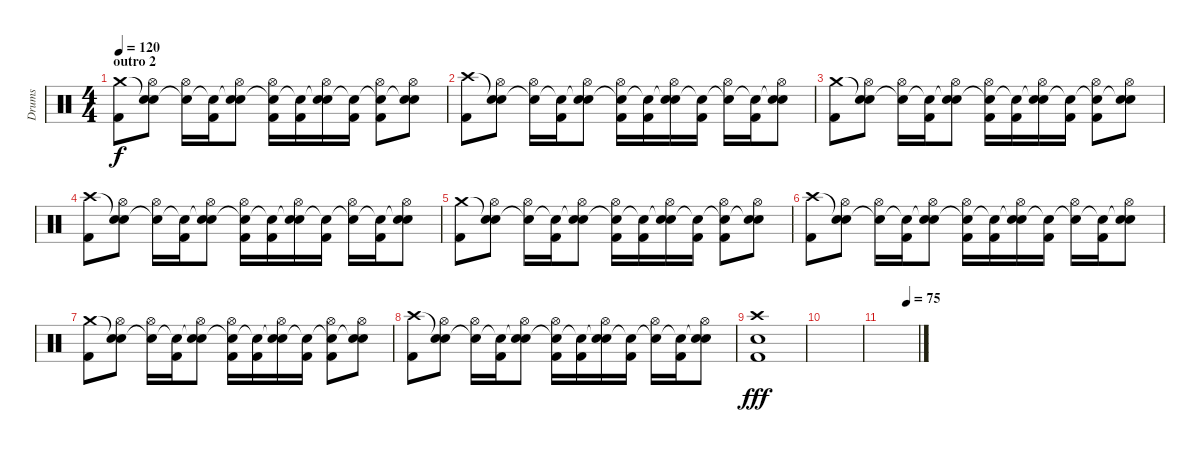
\track ("Drums" "Drums") {instrument percussion}
\staff {score}
\articulation defaults
\ts (4 4)
\section ("" "outro 2")
\tempo 120
\clef neutral
\ks c
("Crash medium (hit)" "Kick (hit) 2").8{dy f} ("Snare (hit)"{t} "Hi-Hat (open)" "Electric Snare (hit)").8 ("Snare (hit)"{t} "Hi-Hat (open)").16 ("Snare (hit)"{t} "Kick (hit) 2").16 ("Snare (hit)"{t} "Hi-Hat (open)" "Electric Snare (hit)").8 ("Snare (hit)"{t} "Hi-Hat (open)" "Kick (hit) 2").16 ("Snare (hit)"{t} "Kick (hit) 2").16 ("Snare (hit)"{t} "Hi-Hat (open)" "Electric Snare (hit)").16 ("Snare (hit)"{t} "Kick (hit) 2").16 ("Snare (hit)"{t} "Hi-Hat (open)" "Kick (hit) 2").8 ("Snare (hit)"{t} "Hi-Hat (open)" "Electric Snare (hit)").8 |
("Crash high (hit)" "Kick (hit) 2").8 ("Snare (hit)"{t} "Hi-Hat (open)" "Electric Snare (hit)").8 ("Snare (hit)"{t} "Hi-Hat (open)").16 ("Snare (hit)"{t} "Kick (hit) 2").16 ("Snare (hit)"{t} "Hi-Hat (open)" "Electric Snare (hit)").8 ("Snare (hit)"{t} "Hi-Hat (open)" "Kick (hit) 2").16 ("Snare (hit)"{t} "Kick (hit) 2").16 ("Snare (hit)"{t} "Hi-Hat (open)" "Electric Snare (hit)").16 ("Snare (hit)"{t} "Kick (hit) 2").16 ("Snare (hit)"{t} "Hi-Hat (open)").16 ("Snare (hit)"{t} "Kick (hit) 2").16 ("Snare (hit)"{t} "Hi-Hat (open)" "Electric Snare (hit)").8 |
("Crash medium (hit)" "Kick (hit) 2").8 ("Snare (hit)"{t} "Hi-Hat (open)" "Electric Snare (hit)").8 ("Snare (hit)"{t} "Hi-Hat (open)").16 ("Snare (hit)"{t} "Kick (hit) 2").16 ("Snare (hit)"{t} "Hi-Hat (open)" "Electric Snare (hit)").8 ("Snare (hit)"{t} "Hi-Hat (open)" "Kick (hit) 2").16 ("Snare (hit)"{t} "Kick (hit) 2").16 ("Snare (hit)"{t} "Hi-Hat (open)" "Electric Snare (hit)").16 ("Snare (hit)"{t} "Kick (hit) 2").16 ("Snare (hit)"{t} "Hi-Hat (open)" "Kick (hit) 2").8 ("Snare (hit)"{t} "Hi-Hat (open)" "Electric Snare (hit)").8 |
("Crash high (hit)" "Kick (hit) 2").8 ("Snare (hit)"{t} "Hi-Hat (open)" "Electric Snare (hit)").8 ("Snare (hit)"{t} "Hi-Hat (open)").16 ("Snare (hit)"{t} "Kick (hit) 2").16 ("Snare (hit)"{t} "Hi-Hat (open)" "Electric Snare (hit)").8 ("Snare (hit)"{t} "Hi-Hat (open)" "Kick (hit) 2").16 ("Snare (hit)"{t} "Kick (hit) 2").16 ("Snare (hit)"{t} "Hi-Hat (open)" "Electric Snare (hit)").16 ("Snare (hit)"{t} "Kick (hit) 2").16 ("Snare (hit)"{t} "Hi-Hat (open)").16 ("Snare (hit)"{t} "Kick (hit) 2").16 ("Snare (hit)"{t} "Hi-Hat (open)" "Electric Snare (hit)").8 |
("Crash medium (hit)" "Kick (hit) 2").8 ("Snare (hit)"{t} "Hi-Hat (open)" "Electric Snare (hit)").8 ("Snare (hit)"{t} "Hi-Hat (open)").16 ("Snare (hit)"{t} "Kick (hit) 2").16 ("Snare (hit)"{t} "Hi-Hat (open)" "Electric Snare (hit)").8 ("Snare (hit)"{t} "Hi-Hat (open)" "Kick (hit) 2").16 ("Snare (hit)"{t} "Kick (hit) 2").16 ("Snare (hit)"{t} "Hi-Hat (open)" "Electric Snare (hit)").16 ("Snare (hit)"{t} "Kick (hit) 2").16 ("Snare (hit)"{t} "Hi-Hat (open)" "Kick (hit) 2").8 ("Snare (hit)"{t} "Hi-Hat (open)" "Electric Snare (hit)").8 |
("Crash high (hit)" "Kick (hit) 2").8 ("Snare (hit)"{t} "Hi-Hat (open)" "Electric Snare (hit)").8 ("Snare (hit)"{t} "Hi-Hat (open)").16 ("Snare (hit)"{t} "Kick (hit) 2").16 ("Snare (hit)"{t} "Hi-Hat (open)" "Electric Snare (hit)").8 ("Snare (hit)"{t} "Hi-Hat (open)" "Kick (hit) 2").16 ("Snare (hit)"{t} "Kick (hit) 2").16 ("Snare (hit)"{t} "Hi-Hat (open)" "Electric Snare (hit)").16 ("Snare (hit)"{t} "Kick (hit) 2").16 ("Snare (hit)"{t} "Hi-Hat (open)").16 ("Snare (hit)"{t} "Kick (hit) 2").16 ("Snare (hit)"{t} "Hi-Hat (open)" "Electric Snare (hit)").8 |
("Crash medium (hit)" "Kick (hit) 2").8 ("Snare (hit)"{t} "Hi-Hat (open)" "Electric Snare (hit)").8 ("Snare (hit)"{t} "Hi-Hat (open)").16 ("Snare (hit)"{t} "Kick (hit) 2").16 ("Snare (hit)"{t} "Hi-Hat (open)" "Electric Snare (hit)").8 ("Snare (hit)"{t} "Hi-Hat (open)" "Kick (hit) 2").16 ("Snare (hit)"{t} "Kick (hit) 2").16 ("Snare (hit)"{t} "Hi-Hat (open)" "Electric Snare (hit)").16 ("Snare (hit)"{t} "Kick (hit) 2").16 ("Snare (hit)"{t} "Hi-Hat (open)" "Kick (hit) 2").8 ("Snare (hit)"{t} "Hi-Hat (open)" "Electric Snare (hit)").8 |
("Crash high (hit)" "Kick (hit) 2").8 ("Snare (hit)"{t} "Hi-Hat (open)" "Electric Snare (hit)").8 ("Snare (hit)"{t} "Hi-Hat (open)").16 ("Snare (hit)"{t} "Kick (hit) 2").16 ("Snare (hit)"{t} "Hi-Hat (open)" "Electric Snare (hit)").8 ("Snare (hit)"{t} "Hi-Hat (open)" "Kick (hit) 2").16 ("Snare (hit)"{t} "Kick (hit) 2").16 ("Snare (hit)"{t} "Hi-Hat (open)" "Electric Snare (hit)").16 ("Snare (hit)"{t} "Kick (hit) 2").16 ("Snare (hit)"{t} "Hi-Hat (open)").16 ("Snare (hit)"{t} "Kick (hit) 2").16 ("Snare (hit)"{t} "Hi-Hat (open)" "Electric Snare (hit)").8 |
("Crash high (hit)" "Electric Snare (hit)" "Kick (hit) 2").1{dy fff} |
|
\tempo (75 0.6875)
